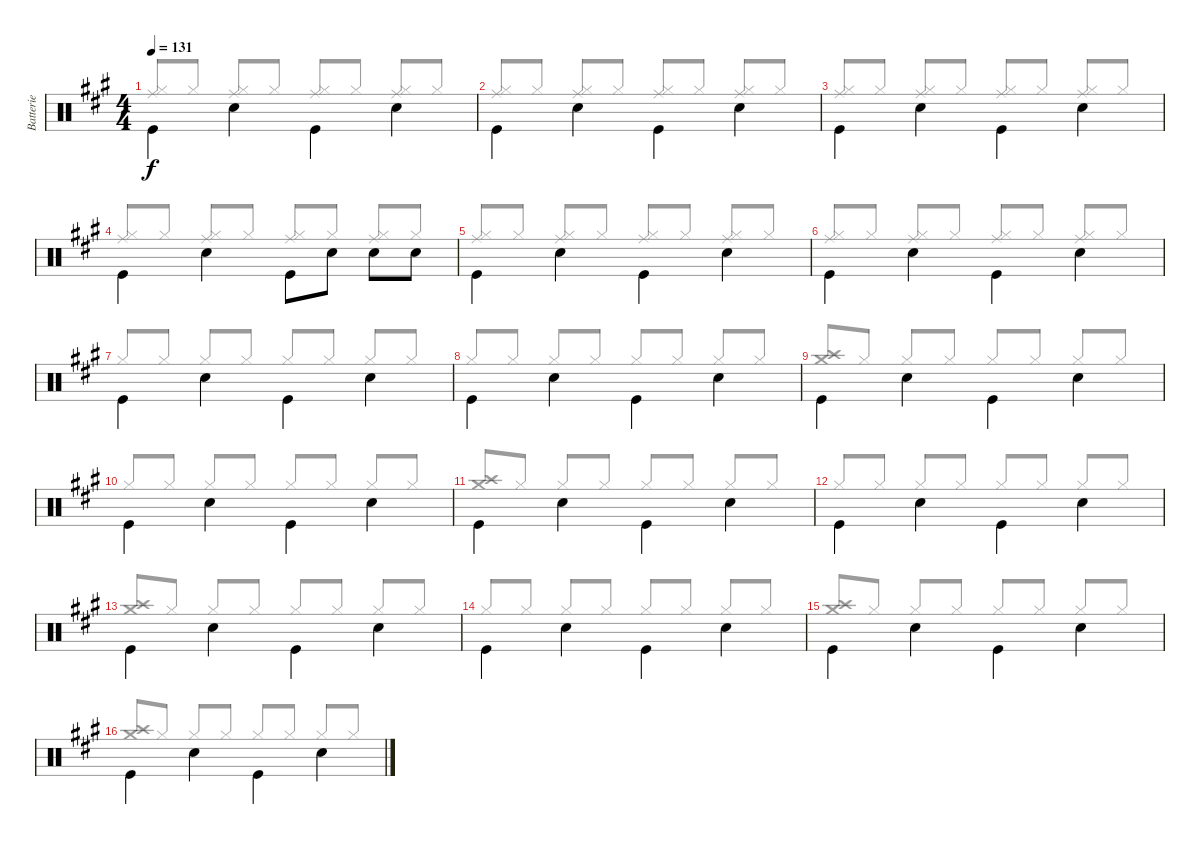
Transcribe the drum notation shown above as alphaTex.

\track ("Batterie" "Batterie") {instrument percussion}
\staff {score}
\articulation defaults
\voice
\ts (4 4)
\tempo 131
\clef neutral
\ks a "Kick (hit)".4{dy f beam Down} "Snare (hit) 2".4{beam Down} "Kick (hit)".4{beam Down} "Snare (hit) 2".4{beam Down}
|
"Kick (hit)".4{beam Down} "Snare (hit) 2".4{beam Down} "Kick (hit)".4{beam Down} "Snare (hit) 2".4{beam Down} |
"Kick (hit)".4{beam Down} "Snare (hit) 2".4{beam Down} "Kick (hit)".4{beam Down} "Snare (hit) 2".4{beam Down} |
"Kick (hit)".4{beam Down} "Snare (hit) 2".4{beam Down} "Kick (hit)".8{beam Down} "Snare (hit) 2".8{beam Down} "Snare (hit) 2".8{beam Down} "Snare (hit) 2".8{beam Down} |
"Kick (hit)".4{beam Down} "Snare (hit) 2".4{beam Down} "Kick (hit)".4{beam Down} "Snare (hit) 2".4{beam Down} |
"Kick (hit)".4{beam Down} "Snare (hit) 2".4{beam Down} "Kick (hit)".4{beam Down} "Snare (hit) 2".4{beam Down} |
"Kick (hit)".4{beam Down} "Snare (hit) 2".4{beam Down} "Kick (hit)".4{beam Down} "Snare (hit) 2".4{beam Down} |
"Kick (hit)".4{beam Down} "Snare (hit) 2".4{beam Down} "Kick (hit)".4{beam Down} "Snare (hit) 2".4{beam Down} |
"Kick (hit)".4{beam Down} "Snare (hit) 2".4{beam Down} "Kick (hit)".4{beam Down} "Snare (hit) 2".4{beam Down} |
"Kick (hit)".4{beam Down} "Snare (hit) 2".4{beam Down} "Kick (hit)".4{beam Down} "Snare (hit) 2".4{beam Down} |
"Kick (hit)".4{beam Down} "Snare (hit) 2".4{beam Down} "Kick (hit)".4{beam Down} "Snare (hit) 2".4{beam Down} |
"Kick (hit)".4{beam Down} "Snare (hit) 2".4{beam Down} "Kick (hit)".4{beam Down} "Snare (hit) 2".4{beam Down} |
"Kick (hit)".4{beam Down} "Snare (hit) 2".4{beam Down} "Kick (hit)".4{beam Down} "Snare (hit) 2".4{beam Down} |
"Kick (hit)".4{beam Down} "Snare (hit) 2".4{beam Down} "Kick (hit)".4{beam Down} "Snare (hit) 2".4{beam Down} |
"Kick (hit)".4{beam Down} "Snare (hit) 2".4{beam Down} "Kick (hit)".4{beam Down} "Snare (hit) 2".4{beam Down} |
"Kick (hit)".4{beam Down} "Snare (hit) 2".4{beam Down} "Kick (hit)".4{beam Down} "Snare (hit) 2".4{beam Down}
\voice
\clef neutral
\ottava regular
\simile none
\ks a
("Ride (middle)" "Hi-Hat (closed)").8{dy f beam Up} "Hi-Hat (closed)".8{beam Up} ("Ride (middle)" "Hi-Hat (closed)").8{beam Up} "Hi-Hat (closed)".8{beam Up} ("Ride (middle)" "Hi-Hat (closed)").8{beam Up} "Hi-Hat (closed)".8{beam Up} ("Ride (middle)" "Hi-Hat (closed)").8{beam Up} "Hi-Hat (closed)".8{beam Up} |
("Ride (middle)" "Hi-Hat (closed)").8{beam Up} "Hi-Hat (closed)".8{beam Up} ("Ride (middle)" "Hi-Hat (closed)").8{beam Up} "Hi-Hat (closed)".8{beam Up} ("Ride (middle)" "Hi-Hat (closed)").8{beam Up} "Hi-Hat (closed)".8{beam Up} ("Ride (middle)" "Hi-Hat (closed)").8{beam Up} "Hi-Hat (closed)".8{beam Up} |
("Ride (middle)" "Hi-Hat (closed)").8{beam Up} "Hi-Hat (closed)".8{beam Up} ("Ride (middle)" "Hi-Hat (closed)").8{beam Up} "Hi-Hat (closed)".8{beam Up} ("Ride (middle)" "Hi-Hat (closed)").8{beam Up} "Hi-Hat (closed)".8{beam Up} ("Ride (middle)" "Hi-Hat (closed)").8{beam Up} "Hi-Hat (closed)".8{beam Up} |
("Ride (middle)" "Hi-Hat (closed)").8{beam Up} "Hi-Hat (closed)".8{beam Up} ("Ride (middle)" "Hi-Hat (closed)").8{beam Up} "Hi-Hat (closed)".8{beam Up} ("Ride (middle)" "Hi-Hat (closed)").8{beam Up} "Hi-Hat (closed)".8{beam Up} ("Ride (middle)" "Hi-Hat (closed)").8{beam Up} "Hi-Hat (closed)".8{beam Up} |
("Ride (middle)" "Hi-Hat (closed)").8{beam Up} "Hi-Hat (closed)".8{beam Up} ("Ride (middle)" "Hi-Hat (closed)").8{beam Up} "Hi-Hat (closed)".8{beam Up} ("Ride (middle)" "Hi-Hat (closed)").8{beam Up} "Hi-Hat (closed)".8{beam Up} ("Ride (middle)" "Hi-Hat (closed)").8{beam Up} "Hi-Hat (closed)".8{beam Up} |
("Ride (middle)" "Hi-Hat (closed)").8{beam Up} "Hi-Hat (closed)".8{beam Up} ("Ride (middle)" "Hi-Hat (closed)").8{beam Up} "Hi-Hat (closed)".8{beam Up} ("Ride (middle)" "Hi-Hat (closed)").8{beam Up} "Hi-Hat (closed)".8{beam Up} ("Ride (middle)" "Hi-Hat (closed)").8{beam Up} "Hi-Hat (closed)".8{beam Up} |
"Hi-Hat (closed)".8{beam Up} "Hi-Hat (closed)".8{beam Up} "Hi-Hat (closed)".8{beam Up} "Hi-Hat (closed)".8{beam Up} "Hi-Hat (closed)".8{beam Up} "Hi-Hat (closed)".8{beam Up} "Hi-Hat (closed)".8{beam Up} "Hi-Hat (closed)".8{beam Up} |
"Hi-Hat (closed)".8{beam Up} "Hi-Hat (closed)".8{beam Up} "Hi-Hat (closed)".8{beam Up} "Hi-Hat (closed)".8{beam Up} "Hi-Hat (closed)".8{beam Up} "Hi-Hat (closed)".8{beam Up} "Hi-Hat (closed)".8{beam Up} "Hi-Hat (closed)".8{beam Up} |
("Crash medium (hit)" "Crash high (hit)").8{beam Up} "Hi-Hat (closed)".8{beam Up} "Hi-Hat (closed)".8{beam Up} "Hi-Hat (closed)".8{beam Up} "Hi-Hat (closed)".8{beam Up} "Hi-Hat (closed)".8{beam Up} "Hi-Hat (closed)".8{beam Up} "Hi-Hat (closed)".8{beam Up} |
"Hi-Hat (closed)".8{beam Up} "Hi-Hat (closed)".8{beam Up} "Hi-Hat (closed)".8{beam Up} "Hi-Hat (closed)".8{beam Up} "Hi-Hat (closed)".8{beam Up} "Hi-Hat (closed)".8{beam Up} "Hi-Hat (closed)".8{beam Up} "Hi-Hat (closed)".8{beam Up} |
("Crash medium (hit)" "Crash high (hit)").8{beam Up} "Hi-Hat (closed)".8{beam Up} "Hi-Hat (closed)".8{beam Up} "Hi-Hat (closed)".8{beam Up} "Hi-Hat (closed)".8{beam Up} "Hi-Hat (closed)".8{beam Up} "Hi-Hat (closed)".8{beam Up} "Hi-Hat (closed)".8{beam Up} |
"Hi-Hat (closed)".8{beam Up} "Hi-Hat (closed)".8{beam Up} "Hi-Hat (closed)".8{beam Up} "Hi-Hat (closed)".8{beam Up} "Hi-Hat (closed)".8{beam Up} "Hi-Hat (closed)".8{beam Up} "Hi-Hat (closed)".8{beam Up} "Hi-Hat (closed)".8{beam Up} |
("Crash medium (hit)" "Crash high (hit)").8{beam Up} "Hi-Hat (closed)".8{beam Up} "Hi-Hat (closed)".8{beam Up} "Hi-Hat (closed)".8{beam Up} "Hi-Hat (closed)".8{beam Up} "Hi-Hat (closed)".8{beam Up} "Hi-Hat (closed)".8{beam Up} "Hi-Hat (closed)".8{beam Up} |
"Hi-Hat (closed)".8{beam Up} "Hi-Hat (closed)".8{beam Up} "Hi-Hat (closed)".8{beam Up} "Hi-Hat (closed)".8{beam Up} "Hi-Hat (closed)".8{beam Up} "Hi-Hat (closed)".8{beam Up} "Hi-Hat (closed)".8{beam Up} "Hi-Hat (closed)".8{beam Up} |
("Crash medium (hit)" "Crash high (hit)").8{beam Up} "Hi-Hat (closed)".8{beam Up} "Hi-Hat (closed)".8{beam Up} "Hi-Hat (closed)".8{beam Up} "Hi-Hat (closed)".8{beam Up} "Hi-Hat (closed)".8{beam Up} "Hi-Hat (closed)".8{beam Up} "Hi-Hat (closed)".8{beam Up} |
("Crash medium (hit)" "Crash high (hit)").8{beam Up} "Hi-Hat (closed)".8{beam Up} "Hi-Hat (closed)".8{beam Up} "Hi-Hat (closed)".8{beam Up} "Hi-Hat (closed)".8{beam Up} "Hi-Hat (closed)".8{beam Up} "Hi-Hat (closed)".8{beam Up} "Hi-Hat (closed)".8{beam Up}
